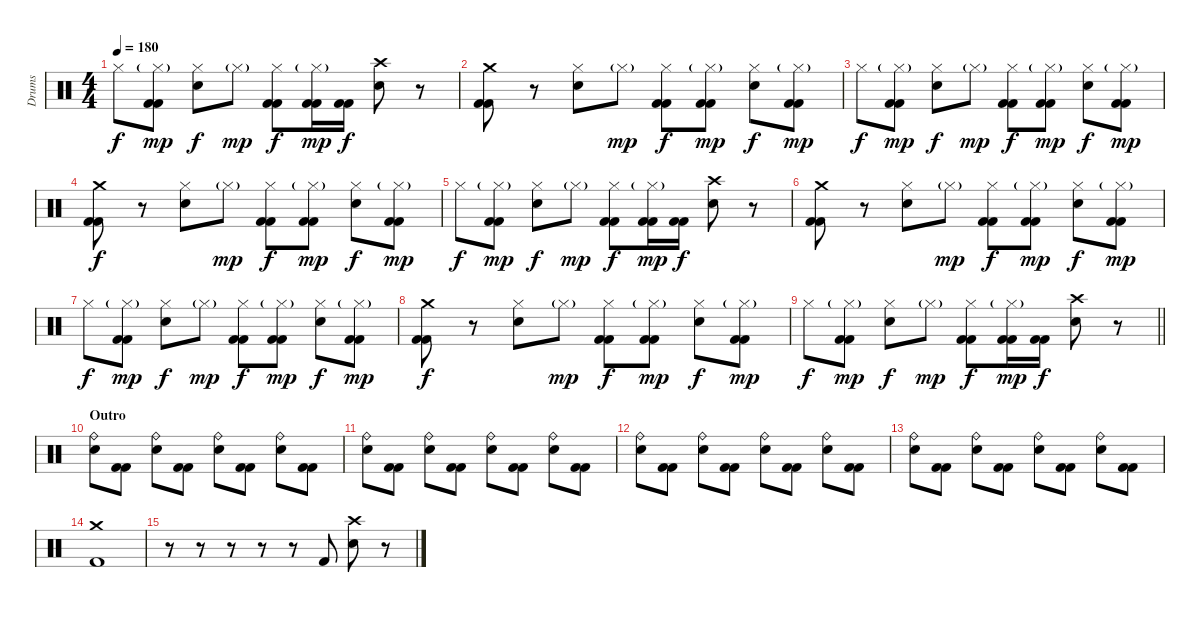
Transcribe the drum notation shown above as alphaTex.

\track ("Drums" "Drums") {instrument percussion}
\staff {score}
\articulation defaults
\ts (4 4)
\tempo 180
\clef neutral
\ks c "Hi-Hat (closed)".8{dy f}
("Hi-Hat (closed)"{g} "Kick (hit) 2" "Kick (hit) 2").8{dy mp} ("Hi-Hat (closed)" "Snare (hit) 2").8{dy f} "Hi-Hat (closed)"{g}.8{dy mp} ("Hi-Hat (closed)" "Kick (hit) 2" "Kick (hit) 2").8{dy f} ("Hi-Hat (closed)"{g} "Kick (hit) 2" "Kick (hit) 2").16{dy mp} ("Kick (hit) 2" "Kick (hit) 2").16{dy f} ("Crash high (hit)" "Snare (hit) 2").8 r.8 |
("Crash medium (hit)" "Kick (hit) 2" "Kick (hit) 2").8 r.8 ("Hi-Hat (closed)" "Snare (hit) 2").8 "Hi-Hat (closed)"{g}.8{dy mp} ("Hi-Hat (closed)" "Kick (hit) 2" "Kick (hit) 2").8{dy f} ("Hi-Hat (closed)"{g} "Kick (hit) 2" "Kick (hit) 2").8{dy mp} ("Hi-Hat (closed)" "Snare (hit) 2").8{dy f} ("Hi-Hat (closed)"{g} "Kick (hit) 2" "Kick (hit) 2").8{dy mp} |
"Hi-Hat (closed)".8{dy f} ("Hi-Hat (closed)"{g} "Kick (hit) 2" "Kick (hit) 2").8{dy mp} ("Hi-Hat (closed)" "Snare (hit) 2").8{dy f} "Hi-Hat (closed)"{g}.8{dy mp} ("Hi-Hat (closed)" "Kick (hit) 2" "Kick (hit) 2").8{dy f} ("Hi-Hat (closed)"{g} "Kick (hit) 2" "Kick (hit) 2").8{dy mp} ("Hi-Hat (closed)" "Snare (hit) 2").8{dy f} ("Hi-Hat (closed)"{g} "Kick (hit) 2" "Kick (hit) 2").8{dy mp} |
("Crash medium (hit)" "Kick (hit) 2" "Kick (hit) 2").8{dy f} r.8 ("Hi-Hat (closed)" "Snare (hit) 2").8 "Hi-Hat (closed)"{g}.8{dy mp} ("Hi-Hat (closed)" "Kick (hit) 2" "Kick (hit) 2").8{dy f} ("Hi-Hat (closed)"{g} "Kick (hit) 2" "Kick (hit) 2").8{dy mp} ("Hi-Hat (closed)" "Snare (hit) 2").8{dy f} ("Hi-Hat (closed)"{g} "Kick (hit) 2" "Kick (hit) 2").8{dy mp} |
"Hi-Hat (closed)".8{dy f} ("Hi-Hat (closed)"{g} "Kick (hit) 2" "Kick (hit) 2").8{dy mp} ("Hi-Hat (closed)" "Snare (hit) 2").8{dy f} "Hi-Hat (closed)"{g}.8{dy mp} ("Hi-Hat (closed)" "Kick (hit) 2" "Kick (hit) 2").8{dy f} ("Hi-Hat (closed)"{g} "Kick (hit) 2" "Kick (hit) 2").16{dy mp} ("Kick (hit) 2" "Kick (hit) 2").16{dy f} ("Crash high (hit)" "Snare (hit) 2").8 r.8 |
("Crash medium (hit)" "Kick (hit) 2" "Kick (hit) 2").8 r.8 ("Hi-Hat (closed)" "Snare (hit) 2").8 "Hi-Hat (closed)"{g}.8{dy mp} ("Hi-Hat (closed)" "Kick (hit) 2" "Kick (hit) 2").8{dy f} ("Hi-Hat (closed)"{g} "Kick (hit) 2" "Kick (hit) 2").8{dy mp} ("Hi-Hat (closed)" "Snare (hit) 2").8{dy f} ("Hi-Hat (closed)"{g} "Kick (hit) 2" "Kick (hit) 2").8{dy mp} |
"Hi-Hat (closed)".8{dy f} ("Hi-Hat (closed)"{g} "Kick (hit) 2" "Kick (hit) 2").8{dy mp} ("Hi-Hat (closed)" "Snare (hit) 2").8{dy f} "Hi-Hat (closed)"{g}.8{dy mp} ("Hi-Hat (closed)" "Kick (hit) 2" "Kick (hit) 2").8{dy f} ("Hi-Hat (closed)"{g} "Kick (hit) 2" "Kick (hit) 2").8{dy mp} ("Hi-Hat (closed)" "Snare (hit) 2").8{dy f} ("Hi-Hat (closed)"{g} "Kick (hit) 2" "Kick (hit) 2").8{dy mp} |
("Crash medium (hit)" "Kick (hit) 2" "Kick (hit) 2").8{dy f} r.8 ("Hi-Hat (closed)" "Snare (hit) 2").8 "Hi-Hat (closed)"{g}.8{dy mp} ("Hi-Hat (closed)" "Kick (hit) 2" "Kick (hit) 2").8{dy f} ("Hi-Hat (closed)"{g} "Kick (hit) 2" "Kick (hit) 2").8{dy mp} ("Hi-Hat (closed)" "Snare (hit) 2").8{dy f} ("Hi-Hat (closed)"{g} "Kick (hit) 2" "Kick (hit) 2").8{dy mp} |
\barLineRight lightlight "Hi-Hat (closed)".8{dy f}
("Hi-Hat (closed)"{g} "Kick (hit) 2" "Kick (hit) 2").8{dy mp} ("Hi-Hat (closed)" "Snare (hit) 2").8{dy f} "Hi-Hat (closed)"{g}.8{dy mp} ("Hi-Hat (closed)" "Kick (hit) 2" "Kick (hit) 2").8{dy f} ("Hi-Hat (closed)"{g} "Kick (hit) 2" "Kick (hit) 2").16{dy mp} ("Kick (hit) 2" "Kick (hit) 2").16{dy f} ("Crash high (hit)" "Snare (hit) 2").8 r.8 |
\section ("" "Outro")
("Ride (bell)" "Snare (hit) 2").8 ("Kick (hit) 2" "Kick (hit) 2").8 ("Ride (bell)" "Snare (hit) 2").8 ("Kick (hit) 2" "Kick (hit) 2").8 ("Ride (bell)" "Snare (hit) 2").8 ("Kick (hit) 2" "Kick (hit) 2").8 ("Ride (bell)" "Snare (hit) 2").8 ("Kick (hit) 2" "Kick (hit) 2").8 |
("Ride (bell)" "Snare (hit) 2").8 ("Kick (hit) 2" "Kick (hit) 2").8 ("Ride (bell)" "Snare (hit) 2").8 ("Kick (hit) 2" "Kick (hit) 2").8 ("Ride (bell)" "Snare (hit) 2").8 ("Kick (hit) 2" "Kick (hit) 2").8 ("Ride (bell)" "Snare (hit) 2").8 ("Kick (hit) 2" "Kick (hit) 2").8 |
("Ride (bell)" "Snare (hit) 2").8 ("Kick (hit) 2" "Kick (hit) 2").8 ("Ride (bell)" "Snare (hit) 2").8 ("Kick (hit) 2" "Kick (hit) 2").8 ("Ride (bell)" "Snare (hit) 2").8 ("Kick (hit) 2" "Kick (hit) 2").8 ("Ride (bell)" "Snare (hit) 2").8 ("Kick (hit) 2" "Kick (hit) 2").8 |
("Ride (bell)" "Snare (hit) 2").8 ("Kick (hit) 2" "Kick (hit) 2").8 ("Ride (bell)" "Snare (hit) 2").8 ("Kick (hit) 2" "Kick (hit) 2").8 ("Ride (bell)" "Snare (hit) 2").8 ("Kick (hit) 2" "Kick (hit) 2").8 ("Ride (bell)" "Snare (hit) 2").8 ("Kick (hit) 2" "Kick (hit) 2").8 |
("Crash medium (hit)" "Kick (hit) 2").1 |
r.8 r.8 r.8 r.8 r.8 "Kick (hit) 2".8 ("Crash high (hit)" "Electric Snare (hit)").8 r.8
